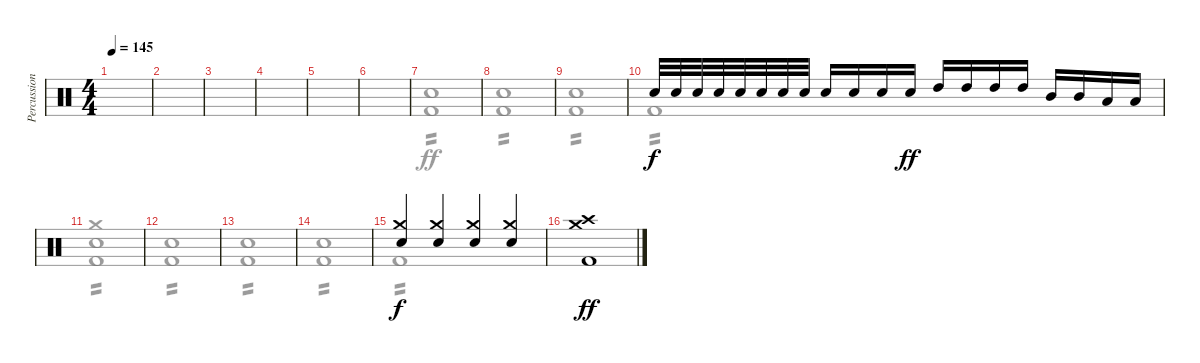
\track ("Percussion" "Percussion") {instrument percussion}
\staff {score}
\articulation defaults
\voice
\ts (4 4)
\tempo 145
\clef neutral
\ks c
|
|
|
|
|
|
|
|
|
"Electric Snare (hit)".32 "Electric Snare (hit)".32 "Electric Snare (hit)".32 "Electric Snare (hit)".32 "Electric Snare (hit)".32 "Electric Snare (hit)".32 "Electric Snare (hit)".32 "Electric Snare (hit)".32 "Electric Snare (hit)".16 "Electric Snare (hit)".16 "Electric Snare (hit)".16 "Electric Snare (hit)".16{dy ff} "High Tom (hit)".16 "High Tom (hit)".16 "High Tom (hit)".16 "High Tom (hit)".16 "Mid Tom (hit)".16 "Mid Tom (hit)".16 "Low Tom (hit)".16 "Low Tom (hit)".16 |
|
|
|
|
("Crash medium (hit)" "Electric Snare (hit)").4{dy f} ("Crash medium (hit)" "Electric Snare (hit)").4 ("Crash medium (hit)" "Electric Snare (hit)").4 ("Crash medium (hit)" "Electric Snare (hit)").4 |
("Crash high (hit)" "Crash medium (hit)" "Kick (hit) 2").1{dy ff}
\voice
\clef neutral
\ottava regular
\simile none
\ks c
|
|
|
|
|
|
("Electric Snare (hit)" "Kick (hit) 2").1{tp 2} |
("Electric Snare (hit)" "Kick (hit) 2").1{tp 2} |
("Electric Snare (hit)" "Kick (hit) 2").1{tp 2} |
"Kick (hit) 2".1{tp 2} |
("Crash medium (hit)" "Electric Snare (hit)" "Kick (hit) 2").1{tp 2} |
("Electric Snare (hit)" "Kick (hit) 2").1{tp 2} |
("Electric Snare (hit)" "Kick (hit) 2").1{tp 2} |
("Electric Snare (hit)" "Kick (hit) 2").1{tp 2} |
"Kick (hit) 2".1{tp 2} |
